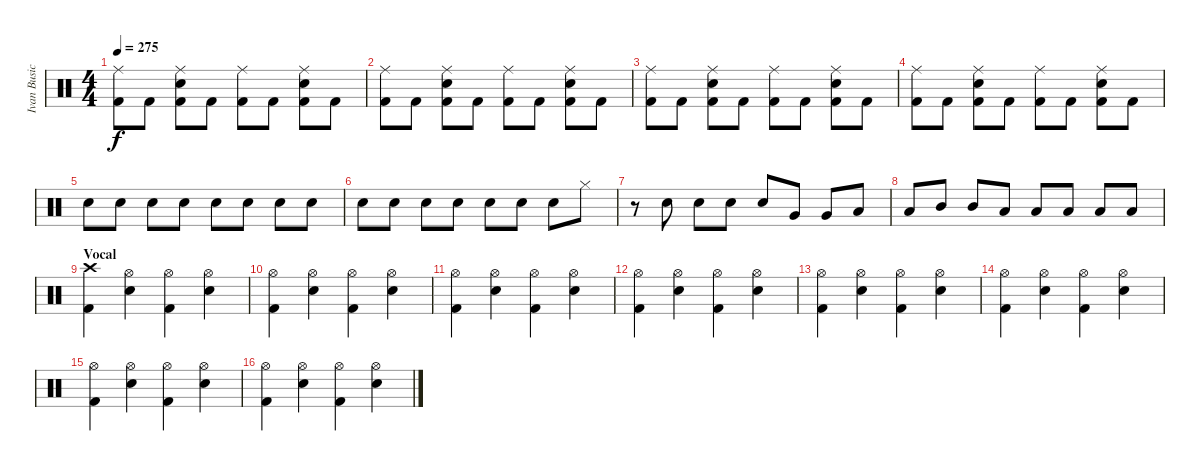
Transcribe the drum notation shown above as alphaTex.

\track ("Ivan Busic" "Ivan Busic") {instrument percussion}
\staff {score}
\articulation defaults
\ts (4 4)
\tempo 275
\clef neutral
\ks c
("Ride (middle)" "Kick (hit) 2").8{dy f} "Kick (hit) 2".8 ("Ride (middle)" "Electric Snare (hit)" "Kick (hit) 2").8 "Kick (hit) 2".8 ("Ride (middle)" "Kick (hit) 2").8 "Kick (hit) 2".8 ("Ride (middle)" "Electric Snare (hit)" "Kick (hit) 2").8 "Kick (hit) 2".8 |
("Ride (middle)" "Kick (hit) 2").8 "Kick (hit) 2".8 ("Ride (middle)" "Electric Snare (hit)" "Kick (hit) 2").8 "Kick (hit) 2".8 ("Ride (middle)" "Kick (hit) 2").8 "Kick (hit) 2".8 ("Ride (middle)" "Electric Snare (hit)" "Kick (hit) 2").8 "Kick (hit) 2".8 |
("Ride (middle)" "Kick (hit) 2").8 "Kick (hit) 2".8 ("Ride (middle)" "Electric Snare (hit)" "Kick (hit) 2").8 "Kick (hit) 2".8 ("Ride (middle)" "Kick (hit) 2").8 "Kick (hit) 2".8 ("Ride (middle)" "Electric Snare (hit)" "Kick (hit) 2").8 "Kick (hit) 2".8 |
("Ride (middle)" "Kick (hit) 2").8 "Kick (hit) 2".8 ("Ride (middle)" "Electric Snare (hit)" "Kick (hit) 2").8 "Kick (hit) 2".8 ("Ride (middle)" "Kick (hit) 2").8 "Kick (hit) 2".8 ("Ride (middle)" "Electric Snare (hit)" "Kick (hit) 2").8 "Kick (hit) 2".8 |
"Electric Snare (hit)".8 "Electric Snare (hit)".8 "Electric Snare (hit)".8 "Electric Snare (hit)".8 "Electric Snare (hit)".8 "Electric Snare (hit)".8 "Electric Snare (hit)".8 "Electric Snare (hit)".8 |
"Electric Snare (hit)".8 "Electric Snare (hit)".8 "Electric Snare (hit)".8 "Electric Snare (hit)".8 "Electric Snare (hit)".8 "Electric Snare (hit)".8 "Electric Snare (hit)".8 "Hi-Hat (closed)".8 |
r.8 "Electric Snare (hit)".8 "Electric Snare (hit)".8 "Electric Snare (hit)".8 "Electric Snare (hit)".8 "Very Low Tom (hit)".8 "Very Low Tom (hit)".8 "Low Tom (hit)".8 |
"Low Tom (hit)".8 "Mid Tom (hit)".8 "Mid Tom (hit)".8 "Low Tom (hit)".8 "Low Tom (hit)".8 "Low Tom (hit)".8 "Low Tom (hit)".8 "Low Tom (hit)".8 |
\section ("" "Vocal")
("Crash high (hit)" "Kick (hit) 2").4 ("Hi-Hat (open)" "Electric Snare (hit)").4 ("Hi-Hat (open)" "Kick (hit) 2").4 ("Hi-Hat (open)" "Electric Snare (hit)").4 |
("Hi-Hat (open)" "Kick (hit) 2").4 ("Hi-Hat (open)" "Electric Snare (hit)").4 ("Hi-Hat (open)" "Kick (hit) 2").4 ("Hi-Hat (open)" "Electric Snare (hit)").4 |
("Hi-Hat (open)" "Kick (hit) 2").4 ("Hi-Hat (open)" "Electric Snare (hit)").4 ("Hi-Hat (open)" "Kick (hit) 2").4 ("Hi-Hat (open)" "Electric Snare (hit)").4 |
("Hi-Hat (open)" "Kick (hit) 2").4 ("Hi-Hat (open)" "Electric Snare (hit)").4 ("Hi-Hat (open)" "Kick (hit) 2").4 ("Hi-Hat (open)" "Electric Snare (hit)").4 |
("Hi-Hat (open)" "Kick (hit) 2").4 ("Hi-Hat (open)" "Electric Snare (hit)").4 ("Hi-Hat (open)" "Kick (hit) 2").4 ("Hi-Hat (open)" "Electric Snare (hit)").4 |
("Hi-Hat (open)" "Kick (hit) 2").4 ("Hi-Hat (open)" "Electric Snare (hit)").4 ("Hi-Hat (open)" "Kick (hit) 2").4 ("Hi-Hat (open)" "Electric Snare (hit)").4 |
("Hi-Hat (open)" "Kick (hit) 2").4 ("Hi-Hat (open)" "Electric Snare (hit)").4 ("Hi-Hat (open)" "Kick (hit) 2").4 ("Hi-Hat (open)" "Electric Snare (hit)").4 |
("Hi-Hat (open)" "Kick (hit) 2").4 ("Hi-Hat (open)" "Electric Snare (hit)").4 ("Hi-Hat (open)" "Kick (hit) 2").4 ("Hi-Hat (open)" "Electric Snare (hit)").4
